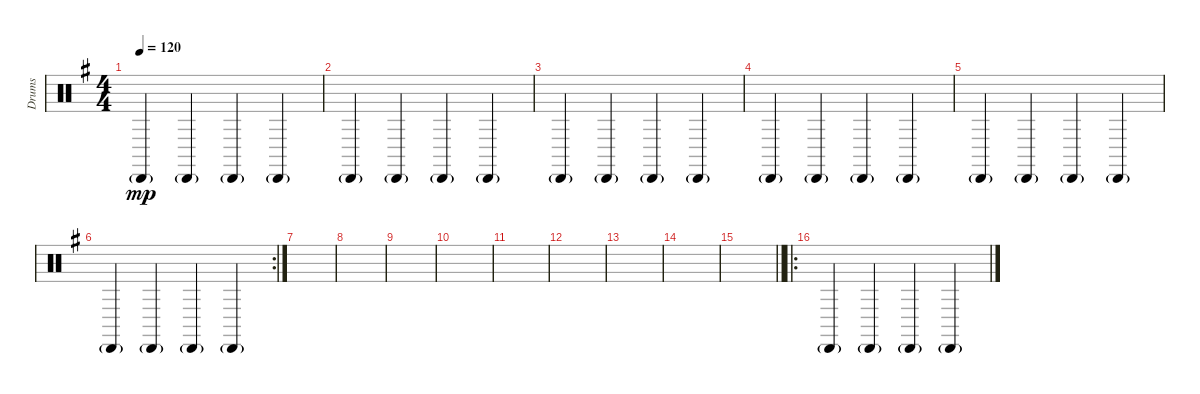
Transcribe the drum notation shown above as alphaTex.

\track ("Drums" "Drums") {instrument percussion}
\staff {score}
\articulation defaults
\ts (4 4)
\tempo 120
\clef neutral
\ks g "Cabasa (hit)"{g}.4{dy mp} "Cabasa (hit)"{g}.4 "Cabasa (hit)"{g}.4 "Cabasa (hit)"{g}.4
|
"Cabasa (hit)"{g}.4 "Cabasa (hit)"{g}.4 "Cabasa (hit)"{g}.4 "Cabasa (hit)"{g}.4 |
"Cabasa (hit)"{g}.4 "Cabasa (hit)"{g}.4 "Cabasa (hit)"{g}.4 "Cabasa (hit)"{g}.4 |
"Cabasa (hit)"{g}.4 "Cabasa (hit)"{g}.4 "Cabasa (hit)"{g}.4 "Cabasa (hit)"{g}.4 |
"Cabasa (hit)"{g}.4 "Cabasa (hit)"{g}.4 "Cabasa (hit)"{g}.4 "Cabasa (hit)"{g}.4 |
\rc 2 "Cabasa (hit)"{g}.4 "Cabasa (hit)"{g}.4 "Cabasa (hit)"{g}.4 "Cabasa (hit)"{g}.4
|
|
|
|
|
|
|
|
|
\barLineRight lightlight
|
\ro "Cabasa (hit)"{g}.4 "Cabasa (hit)"{g}.4 "Cabasa (hit)"{g}.4 "Cabasa (hit)"{g}.4
